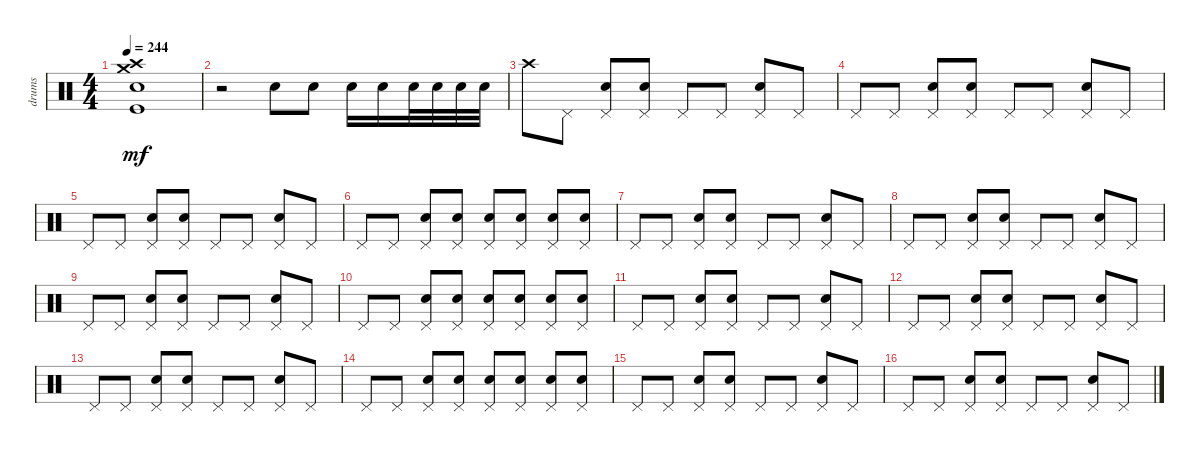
\track ("drums" "drums") {instrument percussion}
\staff {score}
\articulation defaults
\ts (4 4)
\tempo 244
\clef neutral
\ks c
("Kick (hit)" "Snare (hit) 2" "Crash high (hit)" "Crash medium (hit)").1{dy mf} |
r.2 "Snare (hit) 2".8 "Snare (hit) 2".8 "Snare (hit) 2".16 "Snare (hit) 2".16 "Snare (hit) 2".32 "Snare (hit) 2".32 "Snare (hit) 2".32 "Snare (hit) 2".32 |
"Crash high (hit)".8 "Pedal Hi-Hat (hit)".8 ("Pedal Hi-Hat (hit)" "Snare (hit) 2").8 ("Pedal Hi-Hat (hit)" "Snare (hit) 2").8 "Pedal Hi-Hat (hit)".8 "Pedal Hi-Hat (hit)".8 ("Pedal Hi-Hat (hit)" "Snare (hit) 2").8 "Pedal Hi-Hat (hit)".8 |
"Pedal Hi-Hat (hit)".8 "Pedal Hi-Hat (hit)".8 ("Pedal Hi-Hat (hit)" "Snare (hit) 2").8 ("Pedal Hi-Hat (hit)" "Snare (hit) 2").8 "Pedal Hi-Hat (hit)".8 "Pedal Hi-Hat (hit)".8 ("Pedal Hi-Hat (hit)" "Snare (hit) 2").8 "Pedal Hi-Hat (hit)".8 |
"Pedal Hi-Hat (hit)".8 "Pedal Hi-Hat (hit)".8 ("Pedal Hi-Hat (hit)" "Snare (hit) 2").8 ("Pedal Hi-Hat (hit)" "Snare (hit) 2").8 "Pedal Hi-Hat (hit)".8 "Pedal Hi-Hat (hit)".8 ("Pedal Hi-Hat (hit)" "Snare (hit) 2").8 "Pedal Hi-Hat (hit)".8 |
"Pedal Hi-Hat (hit)".8 "Pedal Hi-Hat (hit)".8 ("Pedal Hi-Hat (hit)" "Snare (hit) 2").8 ("Pedal Hi-Hat (hit)" "Snare (hit) 2").8 ("Pedal Hi-Hat (hit)" "Snare (hit) 2").8 ("Pedal Hi-Hat (hit)" "Snare (hit) 2").8 ("Pedal Hi-Hat (hit)" "Snare (hit) 2").8 ("Pedal Hi-Hat (hit)" "Snare (hit) 2").8 |
"Pedal Hi-Hat (hit)".8 "Pedal Hi-Hat (hit)".8 ("Pedal Hi-Hat (hit)" "Snare (hit) 2").8 ("Pedal Hi-Hat (hit)" "Snare (hit) 2").8 "Pedal Hi-Hat (hit)".8 "Pedal Hi-Hat (hit)".8 ("Pedal Hi-Hat (hit)" "Snare (hit) 2").8 "Pedal Hi-Hat (hit)".8 |
"Pedal Hi-Hat (hit)".8 "Pedal Hi-Hat (hit)".8 ("Pedal Hi-Hat (hit)" "Snare (hit) 2").8 ("Pedal Hi-Hat (hit)" "Snare (hit) 2").8 "Pedal Hi-Hat (hit)".8 "Pedal Hi-Hat (hit)".8 ("Pedal Hi-Hat (hit)" "Snare (hit) 2").8 "Pedal Hi-Hat (hit)".8 |
"Pedal Hi-Hat (hit)".8 "Pedal Hi-Hat (hit)".8 ("Pedal Hi-Hat (hit)" "Snare (hit) 2").8 ("Pedal Hi-Hat (hit)" "Snare (hit) 2").8 "Pedal Hi-Hat (hit)".8 "Pedal Hi-Hat (hit)".8 ("Pedal Hi-Hat (hit)" "Snare (hit) 2").8 "Pedal Hi-Hat (hit)".8 |
"Pedal Hi-Hat (hit)".8 "Pedal Hi-Hat (hit)".8 ("Pedal Hi-Hat (hit)" "Snare (hit) 2").8 ("Pedal Hi-Hat (hit)" "Snare (hit) 2").8 ("Pedal Hi-Hat (hit)" "Snare (hit) 2").8 ("Pedal Hi-Hat (hit)" "Snare (hit) 2").8 ("Pedal Hi-Hat (hit)" "Snare (hit) 2").8 ("Pedal Hi-Hat (hit)" "Snare (hit) 2").8 |
"Pedal Hi-Hat (hit)".8 "Pedal Hi-Hat (hit)".8 ("Pedal Hi-Hat (hit)" "Snare (hit) 2").8 ("Pedal Hi-Hat (hit)" "Snare (hit) 2").8 "Pedal Hi-Hat (hit)".8 "Pedal Hi-Hat (hit)".8 ("Pedal Hi-Hat (hit)" "Snare (hit) 2").8 "Pedal Hi-Hat (hit)".8 |
"Pedal Hi-Hat (hit)".8 "Pedal Hi-Hat (hit)".8 ("Pedal Hi-Hat (hit)" "Snare (hit) 2").8 ("Pedal Hi-Hat (hit)" "Snare (hit) 2").8 "Pedal Hi-Hat (hit)".8 "Pedal Hi-Hat (hit)".8 ("Pedal Hi-Hat (hit)" "Snare (hit) 2").8 "Pedal Hi-Hat (hit)".8 |
"Pedal Hi-Hat (hit)".8 "Pedal Hi-Hat (hit)".8 ("Pedal Hi-Hat (hit)" "Snare (hit) 2").8 ("Pedal Hi-Hat (hit)" "Snare (hit) 2").8 "Pedal Hi-Hat (hit)".8 "Pedal Hi-Hat (hit)".8 ("Pedal Hi-Hat (hit)" "Snare (hit) 2").8 "Pedal Hi-Hat (hit)".8 |
"Pedal Hi-Hat (hit)".8 "Pedal Hi-Hat (hit)".8 ("Pedal Hi-Hat (hit)" "Snare (hit) 2").8 ("Pedal Hi-Hat (hit)" "Snare (hit) 2").8 ("Pedal Hi-Hat (hit)" "Snare (hit) 2").8 ("Pedal Hi-Hat (hit)" "Snare (hit) 2").8 ("Pedal Hi-Hat (hit)" "Snare (hit) 2").8 ("Pedal Hi-Hat (hit)" "Snare (hit) 2").8 |
"Pedal Hi-Hat (hit)".8 "Pedal Hi-Hat (hit)".8 ("Pedal Hi-Hat (hit)" "Snare (hit) 2").8 ("Pedal Hi-Hat (hit)" "Snare (hit) 2").8 "Pedal Hi-Hat (hit)".8 "Pedal Hi-Hat (hit)".8 ("Pedal Hi-Hat (hit)" "Snare (hit) 2").8 "Pedal Hi-Hat (hit)".8 |
"Pedal Hi-Hat (hit)".8 "Pedal Hi-Hat (hit)".8 ("Pedal Hi-Hat (hit)" "Snare (hit) 2").8 ("Pedal Hi-Hat (hit)" "Snare (hit) 2").8 "Pedal Hi-Hat (hit)".8 "Pedal Hi-Hat (hit)".8 ("Pedal Hi-Hat (hit)" "Snare (hit) 2").8 "Pedal Hi-Hat (hit)".8
